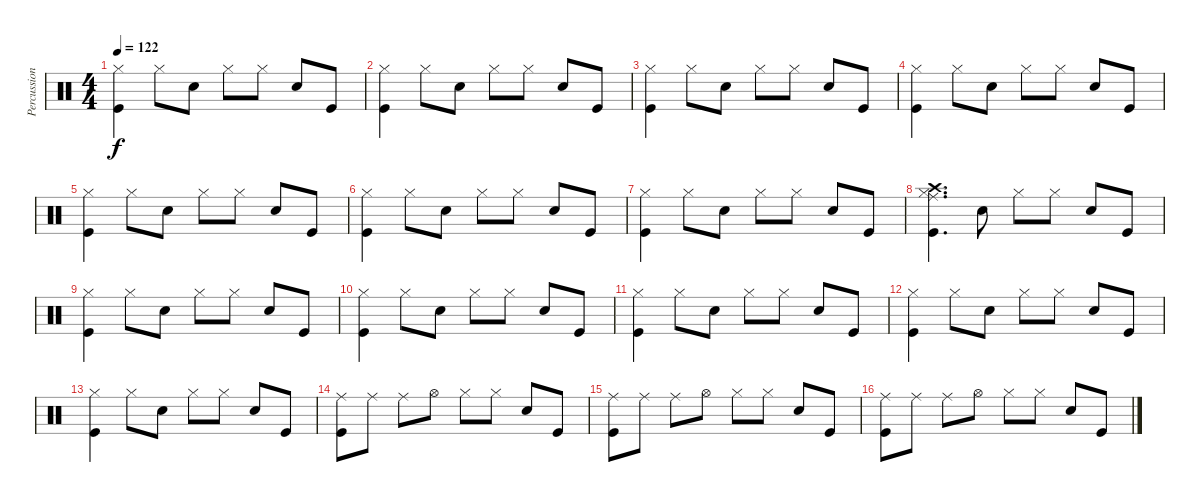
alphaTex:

\track ("Percussioni" "Percussion") {instrument percussion}
\staff {score}
\articulation defaults
\ts (4 4)
\tempo 122
\clef neutral
\ks c
("Hi-Hat (closed)" "Kick (hit)").4{dy f} "Hi-Hat (closed)".8 "Snare (hit) 2".8 "Hi-Hat (closed)".8 "Hi-Hat (closed)".8 "Snare (hit) 2".8 "Kick (hit)".8 |
("Hi-Hat (closed)" "Kick (hit)").4 "Hi-Hat (closed)".8 "Snare (hit) 2".8 "Hi-Hat (closed)".8 "Hi-Hat (closed)".8 "Snare (hit) 2".8 "Kick (hit)".8 |
("Hi-Hat (closed)" "Kick (hit)").4 "Hi-Hat (closed)".8 "Snare (hit) 2".8 "Hi-Hat (closed)".8 "Hi-Hat (closed)".8 "Snare (hit) 2".8 "Kick (hit)".8 |
("Hi-Hat (closed)" "Kick (hit)").4 "Hi-Hat (closed)".8 "Snare (hit) 2".8 "Hi-Hat (closed)".8 "Hi-Hat (closed)".8 "Snare (hit) 2".8 "Kick (hit)".8 |
("Hi-Hat (closed)" "Kick (hit)").4 "Hi-Hat (closed)".8 "Snare (hit) 2".8 "Hi-Hat (closed)".8 "Hi-Hat (closed)".8 "Snare (hit) 2".8 "Kick (hit)".8 |
("Hi-Hat (closed)" "Kick (hit)").4 "Hi-Hat (closed)".8 "Snare (hit) 2".8 "Hi-Hat (closed)".8 "Hi-Hat (closed)".8 "Snare (hit) 2".8 "Kick (hit)".8 |
("Hi-Hat (closed)" "Kick (hit)").4 "Hi-Hat (closed)".8 "Snare (hit) 2".8 "Hi-Hat (closed)".8 "Hi-Hat (closed)".8 "Snare (hit) 2".8 "Kick (hit)".8 |
("Crash high (hit)" "Ride (middle)" "Hi-Hat (closed)" "Kick (hit)").4{d} "Snare (hit) 2".8 "Hi-Hat (closed)".8 "Hi-Hat (closed)".8 "Snare (hit) 2".8 "Kick (hit)".8 |
("Hi-Hat (closed)" "Kick (hit)").4 "Hi-Hat (closed)".8 "Snare (hit) 2".8 "Hi-Hat (closed)".8 "Hi-Hat (closed)".8 "Snare (hit) 2".8 "Kick (hit)".8 |
("Hi-Hat (closed)" "Kick (hit)").4 "Hi-Hat (closed)".8 "Snare (hit) 2".8 "Hi-Hat (closed)".8 "Hi-Hat (closed)".8 "Snare (hit) 2".8 "Kick (hit)".8 |
("Hi-Hat (closed)" "Kick (hit)").4 "Hi-Hat (closed)".8 "Snare (hit) 2".8 "Hi-Hat (closed)".8 "Hi-Hat (closed)".8 "Snare (hit) 2".8 "Kick (hit)".8 |
("Hi-Hat (closed)" "Kick (hit)").4 "Hi-Hat (closed)".8 "Snare (hit) 2".8 "Hi-Hat (closed)".8 "Hi-Hat (closed)".8 "Snare (hit) 2".8 "Kick (hit)".8 |
("Hi-Hat (closed)" "Kick (hit)").4 "Hi-Hat (closed)".8 "Snare (hit) 2".8 "Hi-Hat (closed)".8 "Hi-Hat (closed)".8 "Snare (hit) 2".8 "Kick (hit)".8 |
("Ride (middle)" "Kick (hit)").8 "Ride (middle)".8 "Ride (middle)".8 "Hi-Hat (open)".8 "Hi-Hat (closed)".8 "Hi-Hat (closed)".8 "Snare (hit) 2".8 "Kick (hit)".8 |
("Ride (middle)" "Kick (hit)").8 "Ride (middle)".8 "Ride (middle)".8 "Hi-Hat (open)".8 "Hi-Hat (closed)".8 "Hi-Hat (closed)".8 "Snare (hit) 2".8 "Kick (hit)".8 |
("Ride (middle)" "Kick (hit)").8 "Ride (middle)".8 "Ride (middle)".8 "Hi-Hat (open)".8 "Hi-Hat (closed)".8 "Hi-Hat (closed)".8 "Snare (hit) 2".8 "Kick (hit)".8
